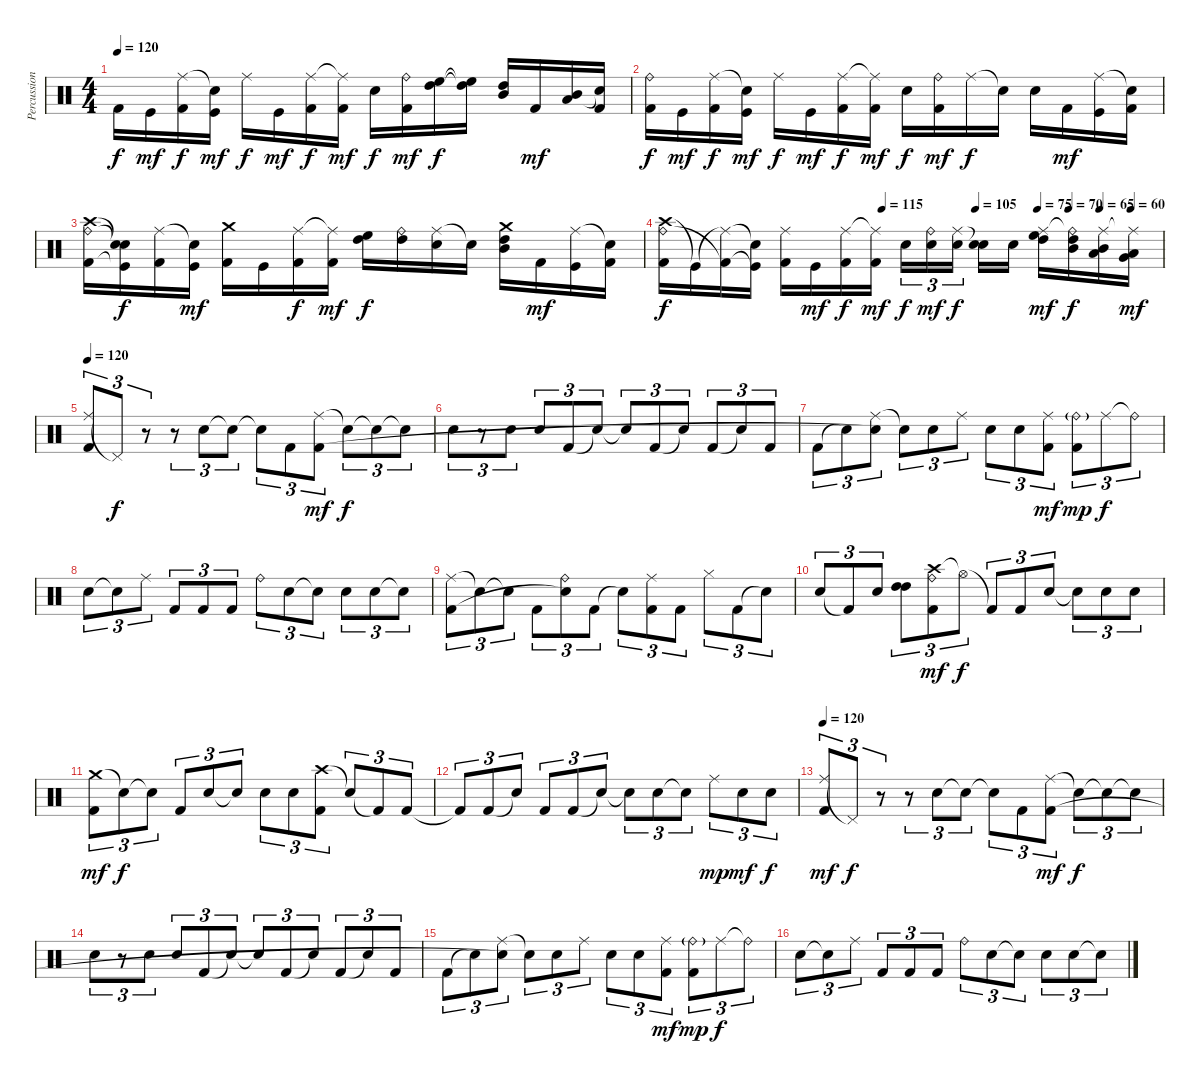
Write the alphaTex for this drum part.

\track ("Percussioni" "Percussion") {instrument percussion}
\staff {score}
\articulation defaults
\ts (4 4)
\tempo 120
\clef neutral
\ks c "Kick (hit) 2".16{dy f} "Kick (hit)".16{dy mf}
("Ride (middle)" "Kick (hit) 2").16{dy f} ("Snare (hit)"{t} "Kick (hit)").16{dy mf} "Ride (middle)".16{dy f} "Kick (hit)".16{dy mf} ("Ride (middle)" "Kick (hit) 2").16{dy f} ("Ride (middle)"{t} "Kick (hit) 2").16{dy mf} "Electric Snare (hit)".16{dy f} ("Ride (bell)" "Kick (hit) 2").16{dy mf} ("High Tom (hit)" "High Floor Tom (hit)").16{bd 240 dy f} ("High Tom (hit)"{t} "High Floor Tom (hit)"{t}).16 ("Mid Tom (hit)" "High Tom (hit)").16{bd 240} "Kick (hit) 2".16{dy mf} ("Low Tom (hit)" "Mid Tom (hit)").16{bd 240} ("Snare (hit)"{t} "Kick (hit) 2").16 |
("Ride (bell)" "Kick (hit) 2").16{dy f} "Kick (hit)".16{dy mf} ("Ride (middle)" "Kick (hit) 2").16{dy f} ("Snare (hit)"{t} "Kick (hit)").16{dy mf} "Ride (middle)".16{dy f} "Kick (hit)".16{dy mf} ("Ride (middle)" "Kick (hit) 2").16{dy f} ("Ride (middle)"{t} "Kick (hit) 2").16{dy mf} "Electric Snare (hit)".16{dy f} ("Ride (bell)" "Kick (hit) 2").16{dy mf} "Ride (middle)".16{dy f} "Snare (hit)"{t}.16 "Electric Snare (hit)".16 "Kick (hit) 2".16{dy mf} ("Ride (middle)" "Kick (hit)").16 ("Snare (hit)"{t} "Kick (hit) 2").16 |
("Crash high (hit)" "Ride (bell)" "Kick (hit) 2").16 ("Snare (hit)"{t} "Snare (hit)"{t} "Kick (hit)"{t}).16{dy f} ("Ride (middle)" "Kick (hit) 2").16 ("Snare (hit)"{t} "Kick (hit)").16{dy mf} ("Crash medium (hit)" "Kick (hit) 2").16 "Kick (hit)".16 ("Ride (middle)" "Kick (hit) 2").16{dy f} ("Ride (middle)"{t} "Kick (hit) 2").16{dy mf} ("High Tom (hit)" "High Floor Tom (hit)").16{bd 240 dy f} ("Ride (bell)" "High Tom (hit)").16 ("Ride (middle)" "Electric Snare (hit)").16 "Snare (hit)"{t}.16 ("Crash medium (hit)" "Mid Tom (hit)" "High Tom (hit)").16{bd 240} "Kick (hit) 2".16{dy mf} ("Ride (middle)" "Kick (hit)").16 ("Snare (hit)"{t} "Kick (hit) 2").16 |
\tempo (115 0.4375)
\tempo (105 0.625)
\tempo (75 0.75)
\tempo (70 0.8125)
\tempo (65 0.875)
\tempo (60 0.9375)
("Crash high (hit)" "Ride (bell)" "Kick (hit) 2").16{dy f} "Kick (hit)"{t}.16 ("Ride (middle)"{t} "Kick (hit) 2"{t}).16 ("Snare (hit)"{t} "Kick (hit)"{t}).16 ("Ride (middle)" "Kick (hit) 2").16 "Kick (hit)".16{dy mf} ("Ride (middle)" "Kick (hit) 2").16{dy f} ("Ride (middle)"{t} "Kick (hit) 2").16{dy mf} "Electric Snare (hit)".16{tu (3 2) dy f} ("Ride (bell)" "Electric Snare (hit)").16{tu (3 2) dy mf} ("Ride (middle)" "Electric Snare (hit)").16{tu (3 2) dy f} ("Snare (hit)"{t} "Electric Snare (hit)").16 "Electric Snare (hit)".16 ("Ride (middle)" "High Tom (hit)" "High Floor Tom (hit)").16{bd 120 dy mf} ("Ride (bell)"{t} "Mid Tom (hit)" "High Tom (hit)").16{bd 240 dy f} ("Ride (middle)" "Low Tom (hit)" "Mid Tom (hit)").16{bd 240} ("Ride (middle)"{t} "Very Low Tom (hit)" "Low Tom (hit)").16{bd 240 dy mf} |
\tempo 120
("Ride (middle)" "Kick (hit) 2").8{tu (3 2) volume 12} "Pedal Hi-Hat (hit)"{t}.8{tu (3 2) dy f} r.8{tu (3 2)} r.8{tu (3 2)} "Metronome (bell)".8{tu (3 2)} "Snare (hit)"{t}.8{tu (3 2)} "Hand Clap (hit)"{t}.8{tu (3 2)} "Kick (hit) 2".8{tu (3 2)} ("Ride (middle)" "Kick (hit) 2").8{tu (3 2) dy mf} "Snare (hit)"{t}.8{tu (3 2) dy f} "Snare (hit)"{t}.8{tu (3 2)} "Snare (hit)"{t}.8{tu (3 2)} |
"Metronome (bell)".8{tu (3 2)} r.8{tu (3 2)} "Metronome (bell)".8{tu (3 2)} "Metronome (bell)".8{tu (3 2)} "Kick (hit) 2".8{tu (3 2)} "Snare (hit)"{t}.8{tu (3 2)} "Snare (hit)"{t}.8{tu (3 2)} "Kick (hit) 2".8{tu (3 2)} "Snare (hit)"{t}.8{tu (3 2)} "Kick (hit) 2".8{tu (3 2)} "Snare (hit)"{t}.8{tu (3 2)} "Kick (hit) 2".8{tu (3 2)} |
"Kick (hit) 2".8{tu (3 2)} "Snare (hit)"{t}.8{tu (3 2)} ("Ride (middle)" "Snare (hit)"{t}).8{tu (3 2)} "Snare (hit)"{t}.8{tu (3 2)} "Metronome (bell)".8{tu (3 2)} "Ride (middle)".8{tu (3 2)} "Metronome (bell)".8{tu (3 2)} "Metronome (bell)".8{tu (3 2)} ("Ride (middle)" "Kick (hit) 2").8{tu (3 2) dy mf} ("Ride (bell)"{g} "Kick (hit) 2").8{tu (3 2) dy mp} "Ride (middle)".8{tu (3 2) dy f} "Ride (bell)"{t}.8{tu (3 2)} |
"Metronome (bell)".8{tu (3 2)} "Snare (hit)"{t}.8{tu (3 2)} "Ride (middle)".8{tu (3 2)} "Kick (hit) 2".8{tu (3 2)} "Kick (hit) 2".8{tu (3 2)} "Kick (hit) 2".8{tu (3 2)} "Ride (bell)".8{tu (3 2)} "Metronome (bell)".8{tu (3 2)} "Snare (hit)"{t}.8{tu (3 2)} "Metronome (bell)".8{tu (3 2)} "Metronome (bell)".8{tu (3 2)} "Snare (hit)"{t}.8{tu (3 2)} |
("Ride (middle)" "Kick (hit) 2").8{tu (3 2)} "Snare (hit)"{t}.8{tu (3 2)} "Snare (hit)"{t}.8{tu (3 2)} "Kick (hit) 2".8{tu (3 2)} ("Ride (bell)" "Snare (hit)"{t}).8{tu (3 2)} "Kick (hit) 2".8{tu (3 2)} "Snare (hit)"{t}.8{tu (3 2)} ("Ride (middle)" "Kick (hit) 2").8{tu (3 2)} "Kick (hit) 2".8{tu (3 2)} "Hi-Hat (closed)".8{tu (3 2)} "Kick (hit) 2".8{tu (3 2)} "Snare (hit)"{t}.8{tu (3 2)} |
"Metronome (bell)".8{tu (3 2)} "Kick (hit) 2"{t}.8{tu (3 2)} "Metronome (bell)".8{tu (3 2)} ("High Tom (hit)" "High Tom (hit)").8{tu (3 2)} ("Crash high (hit)" "Ride (bell)" "Kick (hit) 2").8{tu (3 2) dy mf} "Hi-Hat (open)"{t}.8{tu (3 2) dy f} "Kick (hit) 2"{t}.8{tu (3 2)} "Kick (hit) 2".8{tu (3 2)} "Metronome (bell)".8{tu (3 2)} "Metronome (bell)"{t}.8{tu (3 2)} "Metronome (bell)".8{tu (3 2)} "Metronome (bell)".8{tu (3 2)} |
("Crash medium (hit)" "Kick (hit) 2").8{tu (3 2) dy mf} "Snare (hit)"{t}.8{tu (3 2) dy f} "Snare (hit)"{t}.8{tu (3 2)} "Kick (hit) 2".8{tu (3 2)} "Metronome (bell)".8{tu (3 2)} "Snare (hit)"{t}.8{tu (3 2)} "Metronome (bell)".8{tu (3 2)} "Metronome (bell)".8{tu (3 2)} ("Crash high (hit)" "Kick (hit) 2").8{tu (3 2)} "Snare (hit)"{t}.8{tu (3 2)} "Kick (hit) 2"{t}.8{tu (3 2)} "Kick (hit) 2".8{tu (3 2)} |
"Kick (hit) 2"{t}.8{tu (3 2)} "Kick (hit) 2".8{tu (3 2)} "Snare (hit)"{t}.8{tu (3 2)} "Kick (hit) 2".8{tu (3 2)} "Kick (hit) 2".8{tu (3 2)} "Snare (hit)"{t}.8{tu (3 2)} "Metronome (bell)"{t}.8{tu (3 2)} "Metronome (bell)".8{tu (3 2)} "Snare (hit)"{t}.8{tu (3 2)} "Ride (middle)".8{tu (3 2) dy mp} "Metronome (bell)".8{tu (3 2) dy mf} "Metronome (bell)".8{tu (3 2) dy f} |
\tempo 120
("Ride (middle)" "Kick (hit) 2").8{tu (3 2) dy mf} "Pedal Hi-Hat (hit)"{t}.8{tu (3 2) dy f} r.8{tu (3 2)} r.8{tu (3 2)} "Metronome (bell)".8{tu (3 2)} "Snare (hit)"{t}.8{tu (3 2)} "Hand Clap (hit)"{t}.8{tu (3 2)} "Kick (hit) 2".8{tu (3 2)} ("Ride (middle)" "Kick (hit) 2").8{tu (3 2) dy mf} "Snare (hit)"{t}.8{tu (3 2) dy f} "Snare (hit)"{t}.8{tu (3 2)} "Snare (hit)"{t}.8{tu (3 2)} |
"Metronome (bell)".8{tu (3 2)} r.8{tu (3 2)} "Metronome (bell)".8{tu (3 2)} "Metronome (bell)".8{tu (3 2)} "Kick (hit) 2".8{tu (3 2)} "Snare (hit)"{t}.8{tu (3 2)} "Snare (hit)"{t}.8{tu (3 2)} "Kick (hit) 2".8{tu (3 2)} "Snare (hit)"{t}.8{tu (3 2)} "Kick (hit) 2".8{tu (3 2)} "Snare (hit)"{t}.8{tu (3 2)} "Kick (hit) 2".8{tu (3 2)} |
"Kick (hit) 2".8{tu (3 2)} "Snare (hit)"{t}.8{tu (3 2)} ("Ride (middle)" "Snare (hit)"{t}).8{tu (3 2)} "Snare (hit)"{t}.8{tu (3 2)} "Metronome (bell)".8{tu (3 2)} "Ride (middle)".8{tu (3 2)} "Metronome (bell)".8{tu (3 2)} "Metronome (bell)".8{tu (3 2)} ("Ride (middle)" "Kick (hit) 2").8{tu (3 2) dy mf} ("Ride (bell)"{g} "Kick (hit) 2").8{tu (3 2) dy mp} "Ride (middle)".8{tu (3 2) dy f} "Ride (bell)"{t}.8{tu (3 2)} |
"Metronome (bell)".8{tu (3 2)} "Snare (hit)"{t}.8{tu (3 2)} "Ride (middle)".8{tu (3 2)} "Kick (hit) 2".8{tu (3 2)} "Kick (hit) 2".8{tu (3 2)} "Kick (hit) 2".8{tu (3 2)} "Ride (bell)".8{tu (3 2)} "Metronome (bell)".8{tu (3 2)} "Snare (hit)"{t}.8{tu (3 2)} "Metronome (bell)".8{tu (3 2)} "Metronome (bell)".8{tu (3 2)} "Snare (hit)"{t}.8{tu (3 2)}
